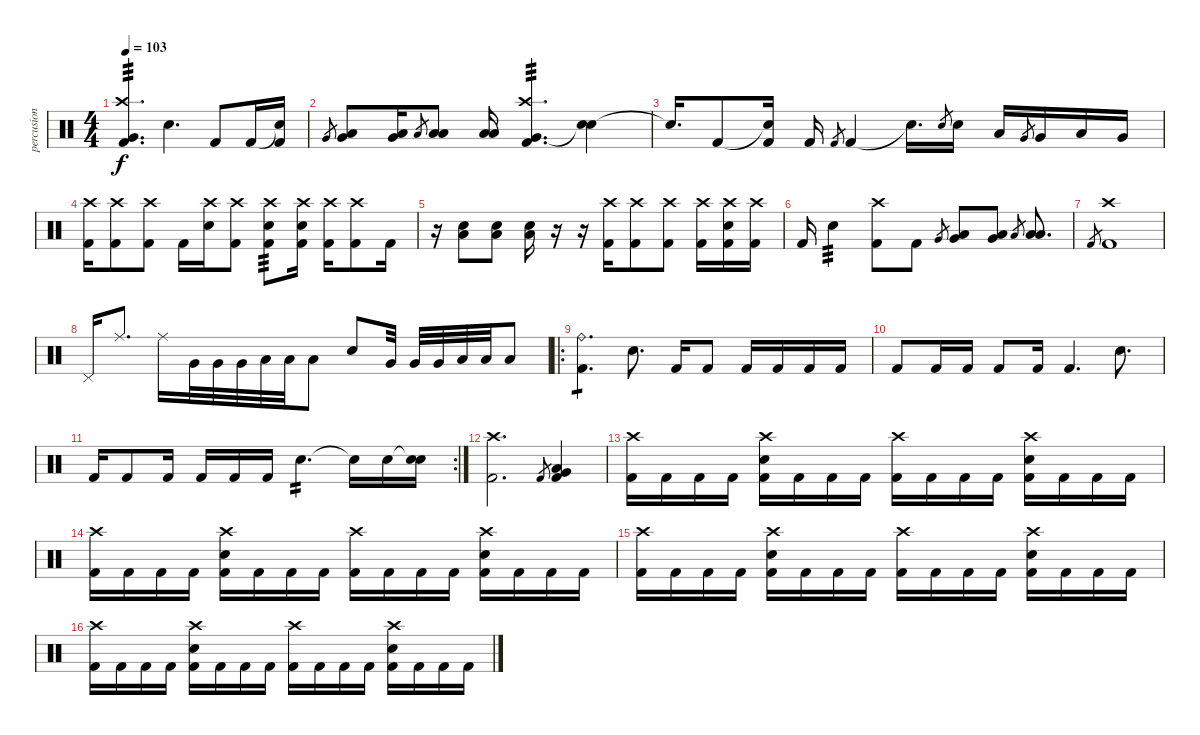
\track ("percusion" "percusion") {instrument percussion}
\staff {score}
\articulation defaults
\ts (4 4)
\tempo 103
\clef neutral
\ks c
("Very Low Tom (hit)" "Crash high (hit)" "Kick (hit) 2").4{d tp 3 dy f} "Electric Snare (hit)".4{d} "Kick (hit) 2".8 "Kick (hit) 2".16 ("Snare (hit)"{t} "Kick (hit) 2").16 |
"Very Low Tom (hit)".8{gr} ("Very Low Tom (hit)" "Low Floor Tom (hit)").8 ("Very Low Tom (hit)" "Low Floor Tom (hit)").16 "Low Tom (hit)".8{gr} ("Low Tom (hit)" "Low Floor Tom (hit)").8 ("Low Tom (hit)" "Low Floor Tom (hit)").16 ("Very Low Tom (hit)" "Crash high (hit)" "Kick (hit) 2").4{d tp 3} ("Snare (hit)"{t} "Electric Snare (hit)").4 |
"Snare (hit)"{t}.16{d} "Kick (hit) 2".8 ("Snare (hit)"{t} "Kick (hit) 2").16 "Kick (hit) 2".16 "Kick (hit) 2".8{gr} "Kick (hit) 2".4 "Snare (hit)"{t}.16{d} "Electric Snare (hit)".8{gr} "Electric Snare (hit)".16 "Low Floor Tom (hit)".16 "Very Low Tom (hit)".8{gr} "Very Low Tom (hit)".16 "Low Floor Tom (hit)".16 "Very Low Tom (hit)".16 |
("Crash high (hit)" "Kick (hit) 2").16 ("Crash high (hit)" "Kick (hit) 2").8 ("Crash high (hit)" "Kick (hit) 2").8 "Kick (hit) 2".16 ("Crash high (hit)" "Electric Snare (hit)").16 ("Crash high (hit)" "Kick (hit) 2").8 ("Crash high (hit)" "Electric Snare (hit)" "Kick (hit) 2").8{tp 3} ("Crash high (hit)" "Electric Snare (hit)" "Kick (hit) 2").16 ("Crash high (hit)" "Kick (hit) 2").16 ("Crash high (hit)" "Kick (hit) 2").8 "Kick (hit) 2".16 |
r.16 ("Electric Snare (hit)" "Low Floor Tom (hit)").8 ("Electric Snare (hit)" "Low Floor Tom (hit)").8 ("Electric Snare (hit)" "Low Floor Tom (hit)").16 r.16 r.16 ("Crash high (hit)" "Kick (hit) 2").16 ("Crash high (hit)" "Kick (hit) 2").8 ("Crash high (hit)" "Kick (hit) 2").8 ("Crash high (hit)" "Kick (hit) 2").16 ("Crash high (hit)" "Electric Snare (hit)" "Kick (hit) 2").16 ("Crash high (hit)" "Kick (hit) 2").16 |
"Kick (hit) 2".16 "Electric Snare (hit)".4{tp 3} ("Crash high (hit)" "Kick (hit) 2").8 "Kick (hit) 2".8 "Very Low Tom (hit)".8{gr} ("Very Low Tom (hit)" "Low Floor Tom (hit)").8 ("Very Low Tom (hit)" "Low Floor Tom (hit)").8 "Low Tom (hit)".8{gr} ("Low Tom (hit)" "Low Floor Tom (hit)").8{d} |
"Kick (hit) 2".8{gr} ("Crash high (hit)" "Kick (hit) 2").1 |
"Pedal Hi-Hat (hit)".16 "Ride (middle)".8{d} "Ride (middle)".16 "Very Low Tom (hit)".32 "Very Low Tom (hit)".32 "Very Low Tom (hit)".32 "Low Tom (hit)".32 "Low Tom (hit)".32 "Low Tom (hit)".8 "Electric Snare (hit)".8 "Very Low Tom (hit)".32 "Very Low Tom (hit)".32 "Very Low Tom (hit)".32 "Low Tom (hit)".32 "Low Tom (hit)".32 "Low Tom (hit)".8 |
\ro
("Ride (bell)" "Kick (hit) 2").4{d tp 1} "Electric Snare (hit)".8{d} "Kick (hit) 2".16 "Kick (hit) 2".8 "Kick (hit) 2".16 "Kick (hit) 2".16 "Kick (hit) 2".16 "Kick (hit) 2".16 |
"Kick (hit) 2".8 "Kick (hit) 2".16 "Kick (hit) 2".16 "Kick (hit) 2".8 "Kick (hit) 2".16 "Kick (hit) 2".4{d} "Electric Snare (hit)".8{d} |
\rc 2 "Kick (hit) 2".16 "Kick (hit) 2".8 "Kick (hit) 2".16 "Kick (hit) 2".16 "Kick (hit) 2".16 "Kick (hit) 2".16 "Electric Snare (hit)".4{d tp 2} "Snare (hit)"{t}.16 "Electric Snare (hit)".16
("Snare (hit)"{t} "Electric Snare (hit)").16 |
("Crash high (hit)" "Kick (hit) 2").2{d} "Kick (hit) 2".8{gr} ("Kick (hit) 2" "Very Low Tom (hit)" "Low Floor Tom (hit)").4 |
("Crash high (hit)" "Kick (hit) 2").16 "Kick (hit) 2".16 "Kick (hit) 2".16 "Kick (hit) 2".16 ("Crash high (hit)" "Electric Snare (hit)" "Kick (hit) 2").16 "Kick (hit) 2".16 "Kick (hit) 2".16 "Kick (hit) 2".16 ("Crash high (hit)" "Kick (hit) 2").16 "Kick (hit) 2".16 "Kick (hit) 2".16 "Kick (hit) 2".16 ("Crash high (hit)" "Electric Snare (hit)" "Kick (hit) 2").16 "Kick (hit) 2".16 "Kick (hit) 2".16 "Kick (hit) 2".16 |
("Crash high (hit)" "Kick (hit) 2").16 "Kick (hit) 2".16 "Kick (hit) 2".16 "Kick (hit) 2".16 ("Crash high (hit)" "Electric Snare (hit)" "Kick (hit) 2").16 "Kick (hit) 2".16 "Kick (hit) 2".16 "Kick (hit) 2".16 ("Crash high (hit)" "Kick (hit) 2").16 "Kick (hit) 2".16 "Kick (hit) 2".16 "Kick (hit) 2".16 ("Crash high (hit)" "Electric Snare (hit)" "Kick (hit) 2").16 "Kick (hit) 2".16 "Kick (hit) 2".16 "Kick (hit) 2".16 |
("Crash high (hit)" "Kick (hit) 2").16 "Kick (hit) 2".16 "Kick (hit) 2".16 "Kick (hit) 2".16 ("Crash high (hit)" "Electric Snare (hit)" "Kick (hit) 2").16 "Kick (hit) 2".16 "Kick (hit) 2".16 "Kick (hit) 2".16 ("Crash high (hit)" "Kick (hit) 2").16 "Kick (hit) 2".16 "Kick (hit) 2".16 "Kick (hit) 2".16 ("Crash high (hit)" "Electric Snare (hit)" "Kick (hit) 2").16 "Kick (hit) 2".16 "Kick (hit) 2".16 "Kick (hit) 2".16 |
("Crash high (hit)" "Kick (hit) 2").16 "Kick (hit) 2".16 "Kick (hit) 2".16 "Kick (hit) 2".16 ("Crash high (hit)" "Electric Snare (hit)" "Kick (hit) 2").16 "Kick (hit) 2".16 "Kick (hit) 2".16 "Kick (hit) 2".16 ("Crash high (hit)" "Kick (hit) 2").16 "Kick (hit) 2".16 "Kick (hit) 2".16 "Kick (hit) 2".16 ("Crash high (hit)" "Electric Snare (hit)" "Kick (hit) 2").16 "Kick (hit) 2".16 "Kick (hit) 2".16 "Kick (hit) 2".16
